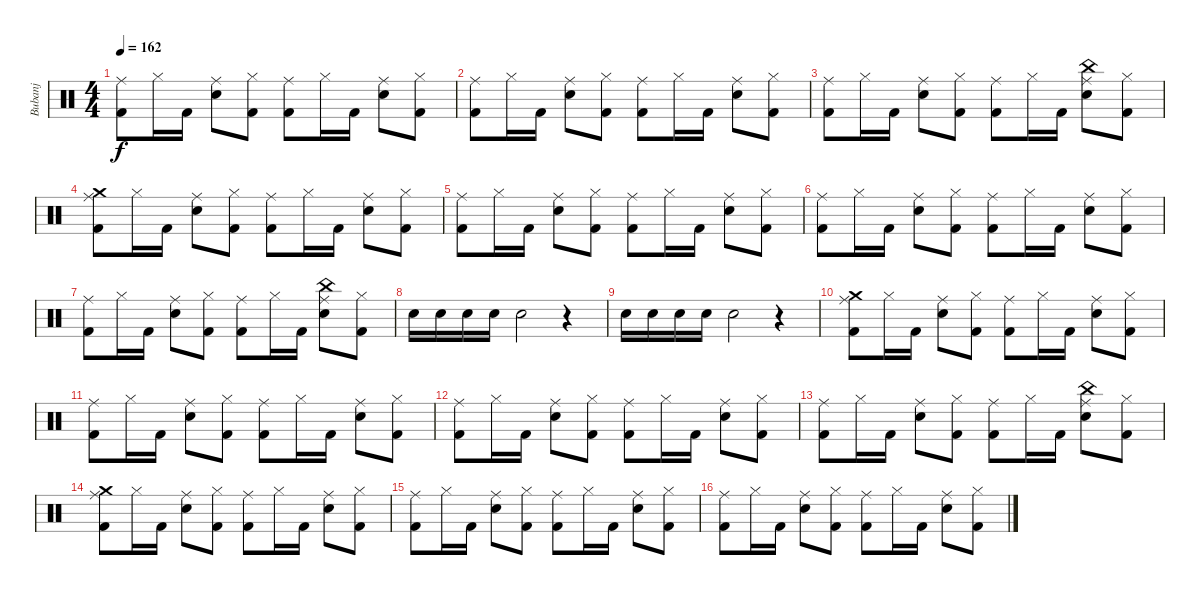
\track ("Bubanj" "Bubanj") {instrument percussion}
\staff {score}
\articulation defaults
\ts (4 4)
\tempo 162
\clef neutral
\ks c
("Ride (middle)" "Kick (hit) 2").8{dy f} "Hi-Hat (closed)".16 "Kick (hit) 2".16 ("Ride (middle)" "Snare (hit) 2").8 ("Hi-Hat (closed)" "Kick (hit) 2").8 ("Ride (middle)" "Kick (hit) 2").8 "Hi-Hat (closed)".16 "Kick (hit) 2".16 ("Ride (middle)" "Snare (hit) 2").8 ("Hi-Hat (closed)" "Kick (hit) 2").8 |
("Ride (middle)" "Kick (hit) 2").8 "Hi-Hat (closed)".16 "Kick (hit) 2".16 ("Ride (middle)" "Snare (hit) 2").8 ("Hi-Hat (closed)" "Kick (hit) 2").8 ("Ride (middle)" "Kick (hit) 2").8 "Hi-Hat (closed)".16 "Kick (hit) 2".16 ("Ride (middle)" "Snare (hit) 2").8 ("Hi-Hat (closed)" "Kick (hit) 2").8 |
("Ride (middle)" "Kick (hit) 2").8 "Hi-Hat (closed)".16 "Kick (hit) 2".16 ("Ride (middle)" "Snare (hit) 2").8 ("Hi-Hat (closed)" "Kick (hit) 2").8 ("Ride (middle)" "Kick (hit) 2").8 "Hi-Hat (closed)".16 "Kick (hit) 2".16 ("Ride (middle)" "Snare (hit) 2" "China (hit)").8 ("Hi-Hat (closed)" "Kick (hit) 2").8 |
("Crash medium (hit)" "Kick (hit) 2" "Ride (middle)").8 "Hi-Hat (closed)".16 "Kick (hit) 2".16 ("Ride (middle)" "Snare (hit) 2").8 ("Hi-Hat (closed)" "Kick (hit) 2").8 ("Ride (middle)" "Kick (hit) 2").8 "Hi-Hat (closed)".16 "Kick (hit) 2".16 ("Ride (middle)" "Snare (hit) 2").8 ("Hi-Hat (closed)" "Kick (hit) 2").8 |
("Ride (middle)" "Kick (hit) 2").8 "Hi-Hat (closed)".16 "Kick (hit) 2".16 ("Ride (middle)" "Snare (hit) 2").8 ("Hi-Hat (closed)" "Kick (hit) 2").8 ("Ride (middle)" "Kick (hit) 2").8 "Hi-Hat (closed)".16 "Kick (hit) 2".16 ("Ride (middle)" "Snare (hit) 2").8 ("Hi-Hat (closed)" "Kick (hit) 2").8 |
("Ride (middle)" "Kick (hit) 2").8 "Hi-Hat (closed)".16 "Kick (hit) 2".16 ("Ride (middle)" "Snare (hit) 2").8 ("Hi-Hat (closed)" "Kick (hit) 2").8 ("Ride (middle)" "Kick (hit) 2").8 "Hi-Hat (closed)".16 "Kick (hit) 2".16 ("Ride (middle)" "Snare (hit) 2").8 ("Hi-Hat (closed)" "Kick (hit) 2").8 |
("Ride (middle)" "Kick (hit) 2").8 "Hi-Hat (closed)".16 "Kick (hit) 2".16 ("Ride (middle)" "Snare (hit) 2").8 ("Hi-Hat (closed)" "Kick (hit) 2").8 ("Ride (middle)" "Kick (hit) 2").8 "Hi-Hat (closed)".16 "Kick (hit) 2".16 ("Ride (middle)" "Snare (hit) 2" "China (hit)").8 ("Hi-Hat (closed)" "Kick (hit) 2").8 |
"Snare (hit) 2".16 "Snare (hit) 2".16 "Snare (hit) 2".16 "Snare (hit) 2".16 "Snare (hit) 2".2 r.4 |
"Snare (hit) 2".16 "Snare (hit) 2".16 "Snare (hit) 2".16 "Snare (hit) 2".16 "Snare (hit) 2".2 r.4 |
("Crash medium (hit)" "Kick (hit) 2" "Ride (middle)").8 "Hi-Hat (closed)".16 "Kick (hit) 2".16 ("Ride (middle)" "Snare (hit) 2").8 ("Hi-Hat (closed)" "Kick (hit) 2").8 ("Ride (middle)" "Kick (hit) 2").8 "Hi-Hat (closed)".16 "Kick (hit) 2".16 ("Ride (middle)" "Snare (hit) 2").8 ("Hi-Hat (closed)" "Kick (hit) 2").8 |
("Ride (middle)" "Kick (hit) 2").8 "Hi-Hat (closed)".16 "Kick (hit) 2".16 ("Ride (middle)" "Snare (hit) 2").8 ("Hi-Hat (closed)" "Kick (hit) 2").8 ("Ride (middle)" "Kick (hit) 2").8 "Hi-Hat (closed)".16 "Kick (hit) 2".16 ("Ride (middle)" "Snare (hit) 2").8 ("Hi-Hat (closed)" "Kick (hit) 2").8 |
("Ride (middle)" "Kick (hit) 2").8 "Hi-Hat (closed)".16 "Kick (hit) 2".16 ("Ride (middle)" "Snare (hit) 2").8 ("Hi-Hat (closed)" "Kick (hit) 2").8 ("Ride (middle)" "Kick (hit) 2").8 "Hi-Hat (closed)".16 "Kick (hit) 2".16 ("Ride (middle)" "Snare (hit) 2").8 ("Hi-Hat (closed)" "Kick (hit) 2").8 |
("Ride (middle)" "Kick (hit) 2").8 "Hi-Hat (closed)".16 "Kick (hit) 2".16 ("Ride (middle)" "Snare (hit) 2").8 ("Hi-Hat (closed)" "Kick (hit) 2").8 ("Ride (middle)" "Kick (hit) 2").8 "Hi-Hat (closed)".16 "Kick (hit) 2".16 ("Ride (middle)" "Snare (hit) 2" "China (hit)").8 ("Hi-Hat (closed)" "Kick (hit) 2").8 |
("Crash medium (hit)" "Kick (hit) 2" "Ride (middle)").8 "Hi-Hat (closed)".16 "Kick (hit) 2".16 ("Ride (middle)" "Snare (hit) 2").8 ("Hi-Hat (closed)" "Kick (hit) 2").8 ("Ride (middle)" "Kick (hit) 2").8 "Hi-Hat (closed)".16 "Kick (hit) 2".16 ("Ride (middle)" "Snare (hit) 2").8 ("Hi-Hat (closed)" "Kick (hit) 2").8 |
("Ride (middle)" "Kick (hit) 2").8 "Hi-Hat (closed)".16 "Kick (hit) 2".16 ("Ride (middle)" "Snare (hit) 2").8 ("Hi-Hat (closed)" "Kick (hit) 2").8 ("Ride (middle)" "Kick (hit) 2").8 "Hi-Hat (closed)".16 "Kick (hit) 2".16 ("Ride (middle)" "Snare (hit) 2").8 ("Hi-Hat (closed)" "Kick (hit) 2").8 |
("Ride (middle)" "Kick (hit) 2").8 "Hi-Hat (closed)".16 "Kick (hit) 2".16 ("Ride (middle)" "Snare (hit) 2").8 ("Hi-Hat (closed)" "Kick (hit) 2").8 ("Ride (middle)" "Kick (hit) 2").8 "Hi-Hat (closed)".16 "Kick (hit) 2".16 ("Ride (middle)" "Snare (hit) 2").8 ("Hi-Hat (closed)" "Kick (hit) 2").8
